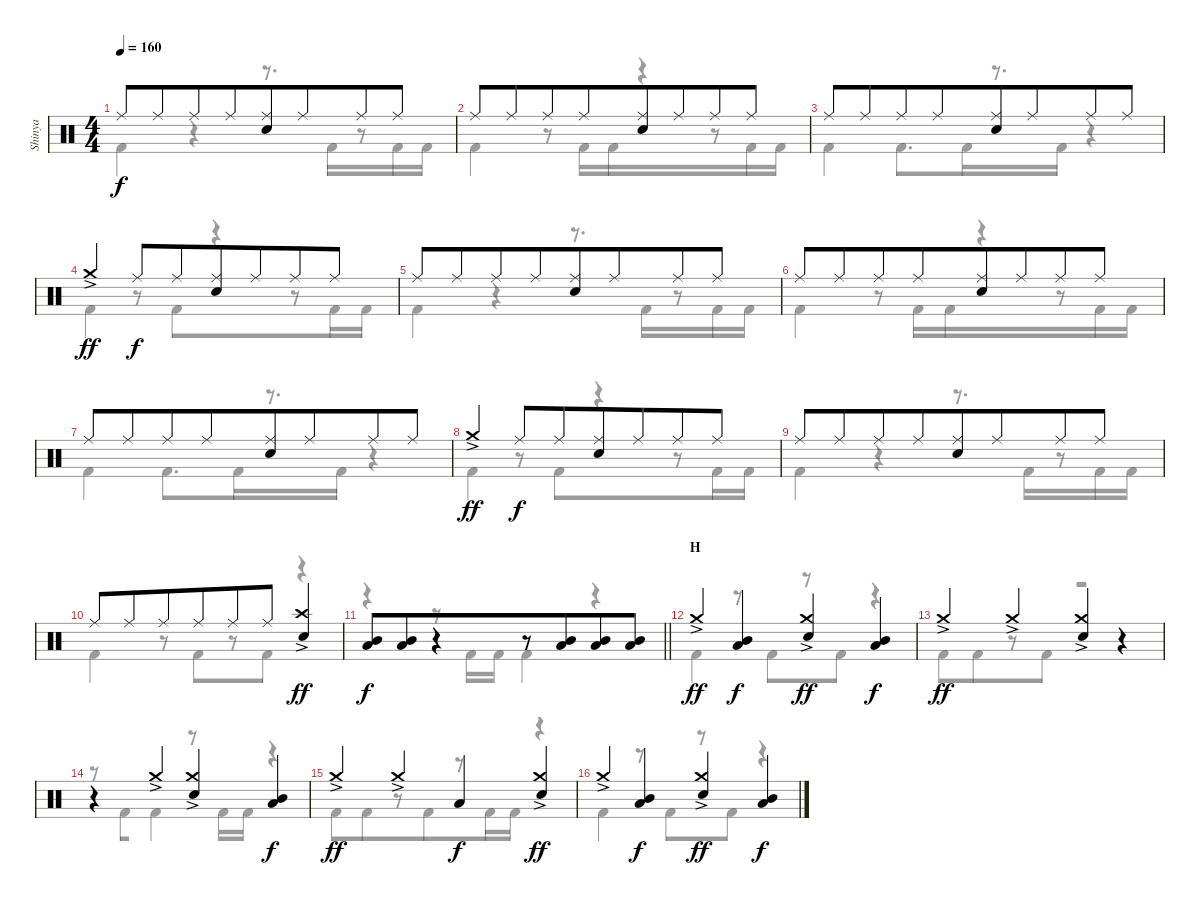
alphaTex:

\track ("Shinya" "Shinya") {instrument percussion}
\staff {score}
\articulation defaults
\voice
\ts (4 4)
\tempo 160
\clef neutral
\ks c "Ride (middle)".8{dy f beam merge} "Ride (middle)".8{beam merge} "Ride (middle)".8{beam merge} "Ride (middle)".8{beam merge}
("Ride (middle)" "Electric Snare (hit)").8{beam merge} "Ride (middle)".8{beam merge} "Ride (middle)".8{beam merge} "Ride (middle)".8 |
"Ride (middle)".8{beam merge} "Ride (middle)".8{beam merge} "Ride (middle)".8{beam merge} "Ride (middle)".8{beam merge} ("Ride (middle)" "Electric Snare (hit)").8{beam merge} "Ride (middle)".8{beam merge} "Ride (middle)".8{beam merge} "Ride (middle)".8 |
"Ride (middle)".8{beam merge} "Ride (middle)".8{beam merge} "Ride (middle)".8{beam merge} "Ride (middle)".8{beam merge} ("Ride (middle)" "Electric Snare (hit)").8{beam merge} "Ride (middle)".8{beam merge} "Ride (middle)".8{beam merge} "Ride (middle)".8 |
"Crash medium (hit)"{ac}.4{dy ff beam merge} "Ride (middle)".8{dy f beam merge} "Ride (middle)".8{beam merge} ("Ride (middle)" "Electric Snare (hit)").8{beam merge} "Ride (middle)".8{beam merge} "Ride (middle)".8{beam merge} "Ride (middle)".8 |
"Ride (middle)".8{beam merge} "Ride (middle)".8{beam merge} "Ride (middle)".8{beam merge} "Ride (middle)".8{beam merge} ("Ride (middle)" "Electric Snare (hit)").8{beam merge} "Ride (middle)".8{beam merge} "Ride (middle)".8{beam merge} "Ride (middle)".8 |
"Ride (middle)".8{beam merge} "Ride (middle)".8{beam merge} "Ride (middle)".8{beam merge} "Ride (middle)".8{beam merge} ("Ride (middle)" "Electric Snare (hit)").8{beam merge} "Ride (middle)".8{beam merge} "Ride (middle)".8{beam merge} "Ride (middle)".8 |
"Ride (middle)".8{beam merge} "Ride (middle)".8{beam merge} "Ride (middle)".8{beam merge} "Ride (middle)".8{beam merge} ("Ride (middle)" "Electric Snare (hit)").8{beam merge} "Ride (middle)".8{beam merge} "Ride (middle)".8{beam merge} "Ride (middle)".8 |
"Crash medium (hit)"{ac}.4{dy ff beam merge} "Ride (middle)".8{dy f beam merge} "Ride (middle)".8{beam merge} ("Ride (middle)" "Electric Snare (hit)").8{beam merge} "Ride (middle)".8{beam merge} "Ride (middle)".8{beam merge} "Ride (middle)".8 |
"Ride (middle)".8{beam merge} "Ride (middle)".8{beam merge} "Ride (middle)".8{beam merge} "Ride (middle)".8{beam merge} ("Ride (middle)" "Electric Snare (hit)").8{beam merge} "Ride (middle)".8{beam merge} "Ride (middle)".8{beam merge} "Ride (middle)".8 |
"Ride (middle)".8{beam merge} "Ride (middle)".8{beam merge} "Ride (middle)".8{beam merge} "Ride (middle)".8{beam merge} "Ride (middle)".8 "Ride (middle)".8{beam merge} ("Crash high (hit)"{ac} "Electric Snare (hit)").4{dy ff} |
\barLineRight lightlight
("Mid Tom (hit)" "Low Tom (hit)").8{dy f beam merge} ("Mid Tom (hit)" "Low Tom (hit)").8{beam merge} r.4{beam merge} r.8 ("Mid Tom (hit)" "Low Tom (hit)").8{beam merge} ("Mid Tom (hit)" "Low Tom (hit)").8 ("Mid Tom (hit)" "Low Tom (hit)").8 |
\section ("" "H")
"Crash medium (hit)"{ac}.4{dy ff beam merge} ("Mid Tom (hit)" "Low Tom (hit)").4{dy f beam merge} ("Crash medium (hit)"{ac} "Electric Snare (hit)").4{dy ff beam merge} ("Mid Tom (hit)" "Low Tom (hit)").4{dy f} |
"Crash medium (hit)"{ac}.4{dy ff beam merge} "Crash medium (hit)"{ac}.4{beam merge} ("Crash medium (hit)"{ac} "Electric Snare (hit)").4 r.4 |
r.4{beam merge} "Crash medium (hit)"{ac}.4{beam merge} ("Crash medium (hit)"{ac} "Electric Snare (hit)").4{beam merge} ("Mid Tom (hit)" "Low Tom (hit)").4{dy f} |
"Crash medium (hit)"{ac}.4{dy ff beam merge} "Crash medium (hit)"{ac}.4{beam merge} "Low Tom (hit)".4{dy f} ("Crash medium (hit)"{ac} "Electric Snare (hit)").4{dy ff} |
"Crash medium (hit)"{ac}.4{beam merge} ("Mid Tom (hit)" "Low Tom (hit)").4{dy f beam merge} ("Crash medium (hit)"{ac} "Electric Snare (hit)").4{dy ff beam merge} ("Mid Tom (hit)" "Low Tom (hit)").4{dy f}
\voice
\clef neutral
\ottava regular
\simile none
\ks c "Kick (hit) 2".4{dy f beam merge}
r.4{beam merge} r.8{d beam merge} "Kick (hit) 2".16{beam merge} r.8 "Kick (hit) 2".16{beam merge} "Kick (hit) 2".16 |
"Kick (hit) 2".4{beam merge} r.8 "Kick (hit) 2".16{beam merge} "Kick (hit) 2".16{beam merge} r.4{beam merge} r.8 "Kick (hit) 2".16{beam merge} "Kick (hit) 2".16 |
"Kick (hit) 2".4{beam merge} "Kick (hit) 2".8{d beam merge} "Kick (hit) 2".16{beam merge} r.8{d beam merge} "Kick (hit) 2".16 r.4 |
"Kick (hit) 2".4{beam merge} r.8{beam merge} "Kick (hit) 2".8{beam merge} r.4{beam merge} r.8 "Kick (hit) 2".16{beam merge} "Kick (hit) 2".16 |
"Kick (hit) 2".4{beam merge} r.4{beam merge} r.8{d beam merge} "Kick (hit) 2".16{beam merge} r.8 "Kick (hit) 2".16{beam merge} "Kick (hit) 2".16 |
"Kick (hit) 2".4{beam merge} r.8 "Kick (hit) 2".16{beam merge} "Kick (hit) 2".16{beam merge} r.4{beam merge} r.8 "Kick (hit) 2".16{beam merge} "Kick (hit) 2".16 |
"Kick (hit) 2".4{beam merge} "Kick (hit) 2".8{d beam merge} "Kick (hit) 2".16{beam merge} r.8{d beam merge} "Kick (hit) 2".16 r.4 |
"Kick (hit) 2".4{beam merge} r.8{beam merge} "Kick (hit) 2".8{beam merge} r.4{beam merge} r.8 "Kick (hit) 2".16{beam merge} "Kick (hit) 2".16 |
"Kick (hit) 2".4{beam merge} r.4{beam merge} r.8{d beam merge} "Kick (hit) 2".16{beam merge} r.8 "Kick (hit) 2".16{beam merge} "Kick (hit) 2".16 |
"Kick (hit) 2".4{beam merge} r.8{beam merge} "Kick (hit) 2".8{beam merge} r.8{beam merge} "Kick (hit) 2".8 r.4 |
\barLineRight lightlight
r.4{beam merge} r.8 "Kick (hit) 2".16{beam merge} "Kick (hit) 2".16{beam merge} "Kick (hit) 2".4{beam merge} r.4 |
"Kick (hit) 2".4{beam merge} r.8{beam merge} "Kick (hit) 2".8{beam merge} r.8{beam merge} "Kick (hit) 2".8 r.4 |
"Kick (hit) 2".8{beam merge} "Kick (hit) 2".8{beam merge} r.8{beam merge} "Kick (hit) 2".8{beam merge} r.2 |
r.8{beam merge} "Kick (hit) 2".8{beam merge} "Kick (hit) 2".4{beam merge} r.8 "Kick (hit) 2".16 "Kick (hit) 2".16{beam merge} r.4 |
"Kick (hit) 2".8{beam merge} "Kick (hit) 2".8{beam merge} r.8{beam merge} "Kick (hit) 2".8{beam merge} r.8 "Kick (hit) 2".16 "Kick (hit) 2".16{beam merge} r.4 |
"Kick (hit) 2".4{beam merge} r.8{beam merge} "Kick (hit) 2".8{beam merge} r.8{beam merge} "Kick (hit) 2".8 r.4
